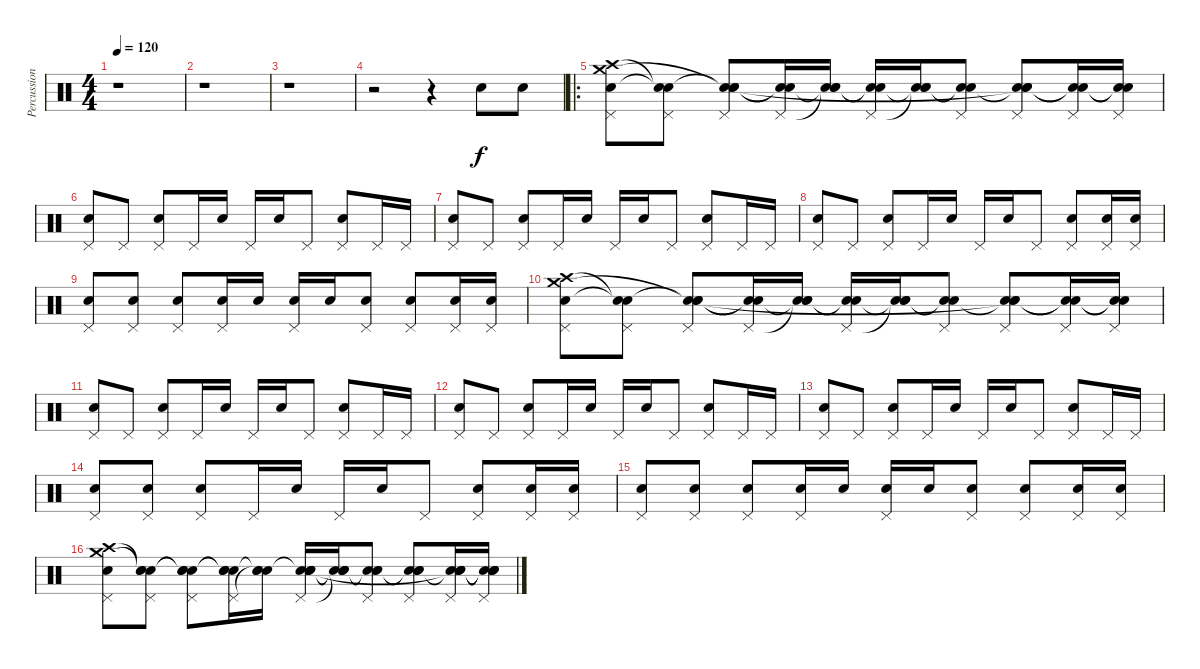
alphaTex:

\track ("Percussion" "Percussion") {instrument percussion}
\staff {score}
\articulation defaults
\ts (4 4)
\tempo 120
\clef neutral
\ks c
r.1{dy f} |
r.1 |
r.1 |
r.2 r.4 "Electric Snare (hit)".8 "Electric Snare (hit)".8 |
\ro
("Pedal Hi-Hat (hit)" "Crash high (hit)" "Snare (hit) 2" "Crash medium (hit)").8 ("Pedal Hi-Hat (hit)" "Snare (hit)"{t} "Snare (hit)"{t}).8 ("Pedal Hi-Hat (hit)" "Snare (hit)"{t} "Electric Snare (hit)" "Snare (hit)"{t}).8 ("Pedal Hi-Hat (hit)" "Snare (hit)"{t} "Snare (hit)"{t}).16 ("Snare (hit)"{t} "Snare (hit) 2" "Snare (hit)"{t}).16 ("Pedal Hi-Hat (hit)" "Snare (hit)"{t} "Snare (hit)"{t}).16 ("Snare (hit)"{t} "Snare (hit) 2" "Snare (hit)"{t}).16 ("Pedal Hi-Hat (hit)" "Snare (hit)"{t} "Snare (hit)"{t}).8 ("Pedal Hi-Hat (hit)" "Snare (hit)"{t} "Electric Snare (hit)" "Snare (hit)"{t}).8 ("Pedal Hi-Hat (hit)" "Snare (hit)"{t} "Snare (hit)"{t}).16 ("Pedal Hi-Hat (hit)" "Snare (hit)"{t} "Snare (hit)"{t}).16 |
("Pedal Hi-Hat (hit)" "Snare (hit) 2").8 "Pedal Hi-Hat (hit)".8 ("Pedal Hi-Hat (hit)" "Electric Snare (hit)").8 "Pedal Hi-Hat (hit)".16 "Snare (hit) 2".16 "Pedal Hi-Hat (hit)".16 "Snare (hit) 2".16 "Pedal Hi-Hat (hit)".8 ("Pedal Hi-Hat (hit)" "Electric Snare (hit)").8 "Pedal Hi-Hat (hit)".16 "Pedal Hi-Hat (hit)".16 |
("Pedal Hi-Hat (hit)" "Snare (hit) 2").8 "Pedal Hi-Hat (hit)".8 ("Pedal Hi-Hat (hit)" "Electric Snare (hit)").8 "Pedal Hi-Hat (hit)".16 "Snare (hit) 2".16 "Pedal Hi-Hat (hit)".16 "Snare (hit) 2".16 "Pedal Hi-Hat (hit)".8 ("Pedal Hi-Hat (hit)" "Electric Snare (hit)").8 "Pedal Hi-Hat (hit)".16 "Pedal Hi-Hat (hit)".16 |
("Pedal Hi-Hat (hit)" "Snare (hit) 2").8 "Pedal Hi-Hat (hit)".8 ("Pedal Hi-Hat (hit)" "Electric Snare (hit)").8 "Pedal Hi-Hat (hit)".16 "Snare (hit) 2".16 "Pedal Hi-Hat (hit)".16 "Snare (hit) 2".16 "Pedal Hi-Hat (hit)".8 ("Pedal Hi-Hat (hit)" "Electric Snare (hit)").8 ("Pedal Hi-Hat (hit)" "Snare (hit) 2").16 ("Pedal Hi-Hat (hit)" "Snare (hit) 2").16 |
("Pedal Hi-Hat (hit)" "Snare (hit) 2").8 ("Pedal Hi-Hat (hit)" "Snare (hit) 2").8 ("Pedal Hi-Hat (hit)" "Electric Snare (hit)").8 ("Pedal Hi-Hat (hit)" "Snare (hit) 2").16 "Snare (hit) 2".16 ("Pedal Hi-Hat (hit)" "Snare (hit) 2").16 "Snare (hit) 2".16 ("Pedal Hi-Hat (hit)" "Snare (hit) 2").8 ("Pedal Hi-Hat (hit)" "Electric Snare (hit)").8 ("Pedal Hi-Hat (hit)" "Snare (hit) 2").16 ("Pedal Hi-Hat (hit)" "Snare (hit) 2").16 |
("Pedal Hi-Hat (hit)" "Crash high (hit)" "Snare (hit) 2" "Crash medium (hit)").8 ("Pedal Hi-Hat (hit)" "Snare (hit)"{t} "Snare (hit)"{t}).8 ("Pedal Hi-Hat (hit)" "Snare (hit)"{t} "Electric Snare (hit)" "Snare (hit)"{t}).8 ("Pedal Hi-Hat (hit)" "Snare (hit)"{t} "Snare (hit)"{t}).16 ("Snare (hit)"{t} "Snare (hit) 2" "Snare (hit)"{t}).16 ("Pedal Hi-Hat (hit)" "Snare (hit)"{t} "Snare (hit)"{t}).16 ("Snare (hit)"{t} "Snare (hit) 2" "Snare (hit)"{t}).16 ("Pedal Hi-Hat (hit)" "Snare (hit)"{t} "Snare (hit)"{t}).8 ("Pedal Hi-Hat (hit)" "Snare (hit)"{t} "Electric Snare (hit)" "Snare (hit)"{t}).8 ("Pedal Hi-Hat (hit)" "Snare (hit)"{t} "Snare (hit)"{t}).16 ("Pedal Hi-Hat (hit)" "Snare (hit)"{t} "Snare (hit)"{t}).16 |
("Pedal Hi-Hat (hit)" "Snare (hit) 2").8 "Pedal Hi-Hat (hit)".8 ("Pedal Hi-Hat (hit)" "Electric Snare (hit)").8 "Pedal Hi-Hat (hit)".16 "Snare (hit) 2".16 "Pedal Hi-Hat (hit)".16 "Snare (hit) 2".16 "Pedal Hi-Hat (hit)".8 ("Pedal Hi-Hat (hit)" "Electric Snare (hit)").8 "Pedal Hi-Hat (hit)".16 "Pedal Hi-Hat (hit)".16 |
("Pedal Hi-Hat (hit)" "Snare (hit) 2").8 "Pedal Hi-Hat (hit)".8 ("Pedal Hi-Hat (hit)" "Electric Snare (hit)").8 "Pedal Hi-Hat (hit)".16 "Snare (hit) 2".16 "Pedal Hi-Hat (hit)".16 "Snare (hit) 2".16 "Pedal Hi-Hat (hit)".8 ("Pedal Hi-Hat (hit)" "Electric Snare (hit)").8 "Pedal Hi-Hat (hit)".16 "Pedal Hi-Hat (hit)".16 |
("Pedal Hi-Hat (hit)" "Snare (hit) 2").8 "Pedal Hi-Hat (hit)".8 ("Pedal Hi-Hat (hit)" "Electric Snare (hit)").8 "Pedal Hi-Hat (hit)".16 "Snare (hit) 2".16 "Pedal Hi-Hat (hit)".16 "Snare (hit) 2".16 "Pedal Hi-Hat (hit)".8 ("Pedal Hi-Hat (hit)" "Electric Snare (hit)").8 "Pedal Hi-Hat (hit)".16 "Pedal Hi-Hat (hit)".16 |
("Pedal Hi-Hat (hit)" "Snare (hit) 2").8 ("Pedal Hi-Hat (hit)" "Snare (hit) 2").8 ("Pedal Hi-Hat (hit)" "Electric Snare (hit)").8 "Pedal Hi-Hat (hit)".16 "Snare (hit) 2".16 "Pedal Hi-Hat (hit)".16 "Snare (hit) 2".16 "Pedal Hi-Hat (hit)".8 ("Pedal Hi-Hat (hit)" "Electric Snare (hit)").8 ("Pedal Hi-Hat (hit)" "Snare (hit) 2").16 ("Pedal Hi-Hat (hit)" "Snare (hit) 2").16 |
("Pedal Hi-Hat (hit)" "Snare (hit) 2").8 ("Pedal Hi-Hat (hit)" "Snare (hit) 2").8 ("Pedal Hi-Hat (hit)" "Electric Snare (hit)").8 ("Pedal Hi-Hat (hit)" "Snare (hit) 2").16 "Snare (hit) 2".16 ("Pedal Hi-Hat (hit)" "Snare (hit) 2").16 "Snare (hit) 2".16 ("Pedal Hi-Hat (hit)" "Snare (hit) 2").8 ("Pedal Hi-Hat (hit)" "Electric Snare (hit)").8 ("Pedal Hi-Hat (hit)" "Snare (hit) 2").16 ("Pedal Hi-Hat (hit)" "Snare (hit) 2").16 |
("Pedal Hi-Hat (hit)" "Crash high (hit)" "Snare (hit) 2" "Crash medium (hit)").8 ("Pedal Hi-Hat (hit)" "Snare (hit)"{t} "Snare (hit) 2" "Snare (hit)"{t}).8 ("Pedal Hi-Hat (hit)" "Snare (hit)"{t} "Electric Snare (hit)" "Snare (hit)"{t}).8 ("Pedal Hi-Hat (hit)" "Snare (hit)"{t} "Electric Snare (hit)" "Snare (hit)"{t}).16 ("Snare (hit)"{t} "Snare (hit) 2" "Snare (hit)"{t}).16 ("Pedal Hi-Hat (hit)" "Snare (hit)"{t} "Electric Snare (hit)" "Snare (hit) 2" "Snare (hit)").16 ("Snare (hit)"{t} "Electric Snare (hit)"{t} "Snare (hit) 2" "Snare (hit)"{t}).16 ("Pedal Hi-Hat (hit)" "Snare (hit)"{t} "Snare (hit) 2" "Snare (hit)"{t}).8 ("Pedal Hi-Hat (hit)" "Snare (hit)"{t} "Electric Snare (hit)" "Snare (hit)"{t}).8 ("Pedal Hi-Hat (hit)" "Snare (hit)"{t} "Electric Snare (hit)" "Snare (hit) 2" "Snare (hit)"{t}).16 ("Pedal Hi-Hat (hit)" "Snare (hit)"{t} "Snare (hit)"{t} "Snare (hit) 2" "Snare (hit)"{t}).16
